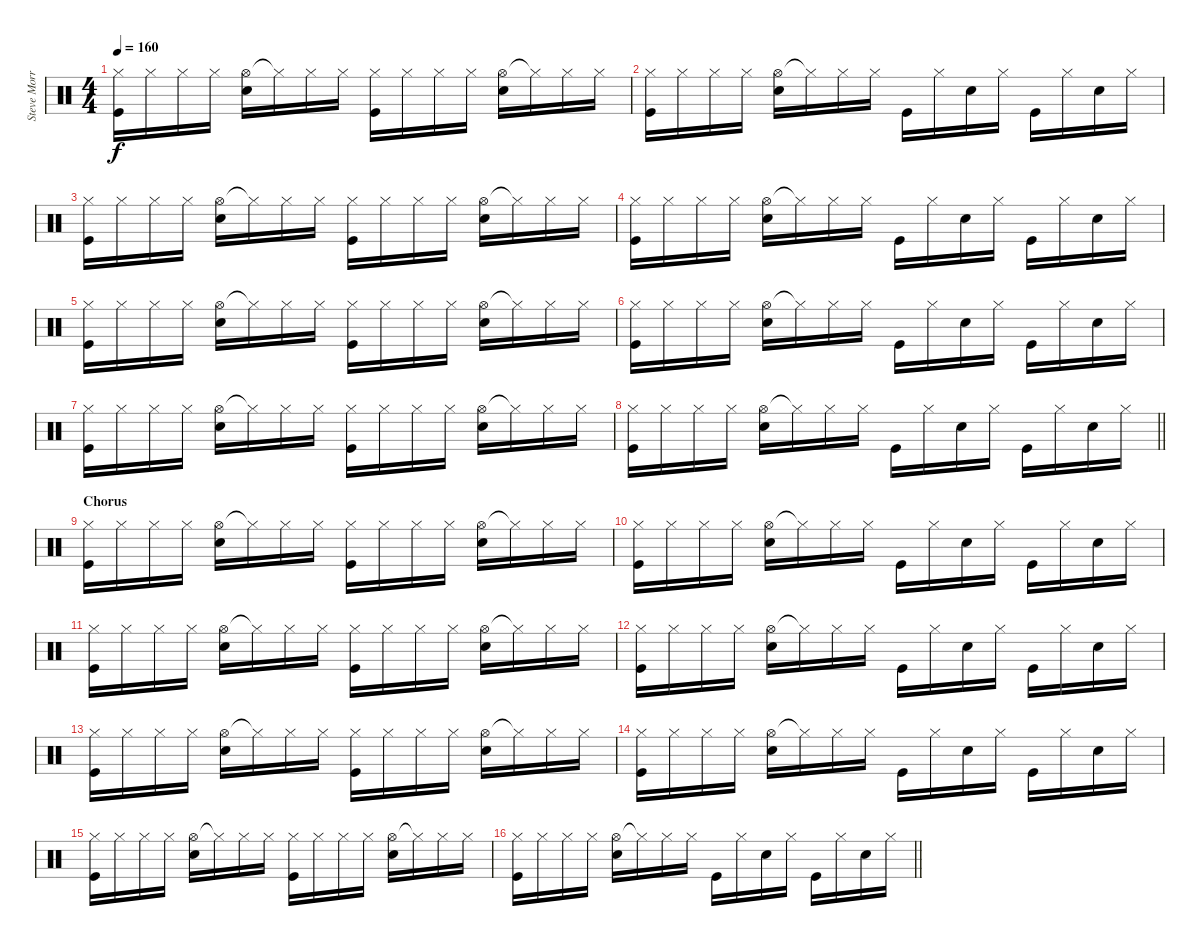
\track ("Steve Morris" "Steve Morr") {instrument percussion}
\staff {score}
\articulation defaults
\ts (4 4)
\tempo 160
\clef neutral
\ks c
("Hi-Hat (closed)" "Kick (hit)").16{dy f} "Hi-Hat (closed)".16 "Hi-Hat (closed)".16 "Hi-Hat (closed)".16 ("Hi-Hat (open)" "Electric Snare (hit)").16 "Hi-Hat (closed)"{t}.16 "Hi-Hat (closed)".16 "Hi-Hat (closed)".16 ("Hi-Hat (closed)" "Kick (hit)").16 "Hi-Hat (closed)".16 "Hi-Hat (closed)".16 "Hi-Hat (closed)".16 ("Hi-Hat (open)" "Electric Snare (hit)").16 "Hi-Hat (closed)"{t}.16 "Hi-Hat (closed)".16 "Hi-Hat (closed)".16 |
("Hi-Hat (closed)" "Kick (hit)").16 "Hi-Hat (closed)".16 "Hi-Hat (closed)".16 "Hi-Hat (closed)".16 ("Hi-Hat (open)" "Electric Snare (hit)").16 "Hi-Hat (closed)"{t}.16 "Hi-Hat (closed)".16 "Hi-Hat (closed)".16 "Kick (hit)".16 "Hi-Hat (closed)".16 "Electric Snare (hit)".16 "Hi-Hat (closed)".16 "Kick (hit)".16 "Hi-Hat (closed)".16 "Electric Snare (hit)".16 "Hi-Hat (closed)".16 |
("Hi-Hat (closed)" "Kick (hit)").16 "Hi-Hat (closed)".16 "Hi-Hat (closed)".16 "Hi-Hat (closed)".16 ("Hi-Hat (open)" "Electric Snare (hit)").16 "Hi-Hat (closed)"{t}.16 "Hi-Hat (closed)".16 "Hi-Hat (closed)".16 ("Hi-Hat (closed)" "Kick (hit)").16 "Hi-Hat (closed)".16 "Hi-Hat (closed)".16 "Hi-Hat (closed)".16 ("Hi-Hat (open)" "Electric Snare (hit)").16 "Hi-Hat (closed)"{t}.16 "Hi-Hat (closed)".16 "Hi-Hat (closed)".16 |
("Hi-Hat (closed)" "Kick (hit)").16 "Hi-Hat (closed)".16 "Hi-Hat (closed)".16 "Hi-Hat (closed)".16 ("Hi-Hat (open)" "Electric Snare (hit)").16 "Hi-Hat (closed)"{t}.16 "Hi-Hat (closed)".16 "Hi-Hat (closed)".16 "Kick (hit)".16 "Hi-Hat (closed)".16 "Electric Snare (hit)".16 "Hi-Hat (closed)".16 "Kick (hit)".16 "Hi-Hat (closed)".16 "Electric Snare (hit)".16 "Hi-Hat (closed)".16 |
("Hi-Hat (closed)" "Kick (hit)").16 "Hi-Hat (closed)".16 "Hi-Hat (closed)".16 "Hi-Hat (closed)".16 ("Hi-Hat (open)" "Electric Snare (hit)").16 "Hi-Hat (closed)"{t}.16 "Hi-Hat (closed)".16 "Hi-Hat (closed)".16 ("Hi-Hat (closed)" "Kick (hit)").16 "Hi-Hat (closed)".16 "Hi-Hat (closed)".16 "Hi-Hat (closed)".16 ("Hi-Hat (open)" "Electric Snare (hit)").16 "Hi-Hat (closed)"{t}.16 "Hi-Hat (closed)".16 "Hi-Hat (closed)".16 |
("Hi-Hat (closed)" "Kick (hit)").16 "Hi-Hat (closed)".16 "Hi-Hat (closed)".16 "Hi-Hat (closed)".16 ("Hi-Hat (open)" "Electric Snare (hit)").16 "Hi-Hat (closed)"{t}.16 "Hi-Hat (closed)".16 "Hi-Hat (closed)".16 "Kick (hit)".16 "Hi-Hat (closed)".16 "Electric Snare (hit)".16 "Hi-Hat (closed)".16 "Kick (hit)".16 "Hi-Hat (closed)".16 "Electric Snare (hit)".16 "Hi-Hat (closed)".16 |
("Hi-Hat (closed)" "Kick (hit)").16 "Hi-Hat (closed)".16 "Hi-Hat (closed)".16 "Hi-Hat (closed)".16 ("Hi-Hat (open)" "Electric Snare (hit)").16 "Hi-Hat (closed)"{t}.16 "Hi-Hat (closed)".16 "Hi-Hat (closed)".16 ("Hi-Hat (closed)" "Kick (hit)").16 "Hi-Hat (closed)".16 "Hi-Hat (closed)".16 "Hi-Hat (closed)".16 ("Hi-Hat (open)" "Electric Snare (hit)").16 "Hi-Hat (closed)"{t}.16 "Hi-Hat (closed)".16 "Hi-Hat (closed)".16 |
\barLineRight lightlight
("Hi-Hat (closed)" "Kick (hit)").16 "Hi-Hat (closed)".16 "Hi-Hat (closed)".16 "Hi-Hat (closed)".16 ("Hi-Hat (open)" "Electric Snare (hit)").16 "Hi-Hat (closed)"{t}.16 "Hi-Hat (closed)".16 "Hi-Hat (closed)".16 "Kick (hit)".16 "Hi-Hat (closed)".16 "Electric Snare (hit)".16 "Hi-Hat (closed)".16 "Kick (hit)".16 "Hi-Hat (closed)".16 "Electric Snare (hit)".16 "Hi-Hat (closed)".16 |
\section ("" "Chorus")
("Hi-Hat (closed)" "Kick (hit)").16 "Hi-Hat (closed)".16 "Hi-Hat (closed)".16 "Hi-Hat (closed)".16 ("Hi-Hat (open)" "Electric Snare (hit)").16 "Hi-Hat (closed)"{t}.16 "Hi-Hat (closed)".16 "Hi-Hat (closed)".16 ("Hi-Hat (closed)" "Kick (hit)").16 "Hi-Hat (closed)".16 "Hi-Hat (closed)".16 "Hi-Hat (closed)".16 ("Hi-Hat (open)" "Electric Snare (hit)").16 "Hi-Hat (closed)"{t}.16 "Hi-Hat (closed)".16 "Hi-Hat (closed)".16 |
("Hi-Hat (closed)" "Kick (hit)").16 "Hi-Hat (closed)".16 "Hi-Hat (closed)".16 "Hi-Hat (closed)".16 ("Hi-Hat (open)" "Electric Snare (hit)").16 "Hi-Hat (closed)"{t}.16 "Hi-Hat (closed)".16 "Hi-Hat (closed)".16 "Kick (hit)".16 "Hi-Hat (closed)".16 "Electric Snare (hit)".16 "Hi-Hat (closed)".16 "Kick (hit)".16 "Hi-Hat (closed)".16 "Electric Snare (hit)".16 "Hi-Hat (closed)".16 |
("Hi-Hat (closed)" "Kick (hit)").16 "Hi-Hat (closed)".16 "Hi-Hat (closed)".16 "Hi-Hat (closed)".16 ("Hi-Hat (open)" "Electric Snare (hit)").16 "Hi-Hat (closed)"{t}.16 "Hi-Hat (closed)".16 "Hi-Hat (closed)".16 ("Hi-Hat (closed)" "Kick (hit)").16 "Hi-Hat (closed)".16 "Hi-Hat (closed)".16 "Hi-Hat (closed)".16 ("Hi-Hat (open)" "Electric Snare (hit)").16 "Hi-Hat (closed)"{t}.16 "Hi-Hat (closed)".16 "Hi-Hat (closed)".16 |
("Hi-Hat (closed)" "Kick (hit)").16 "Hi-Hat (closed)".16 "Hi-Hat (closed)".16 "Hi-Hat (closed)".16 ("Hi-Hat (open)" "Electric Snare (hit)").16 "Hi-Hat (closed)"{t}.16 "Hi-Hat (closed)".16 "Hi-Hat (closed)".16 "Kick (hit)".16 "Hi-Hat (closed)".16 "Electric Snare (hit)".16 "Hi-Hat (closed)".16 "Kick (hit)".16 "Hi-Hat (closed)".16 "Electric Snare (hit)".16 "Hi-Hat (closed)".16 |
("Hi-Hat (closed)" "Kick (hit)").16 "Hi-Hat (closed)".16 "Hi-Hat (closed)".16 "Hi-Hat (closed)".16 ("Hi-Hat (open)" "Electric Snare (hit)").16 "Hi-Hat (closed)"{t}.16 "Hi-Hat (closed)".16 "Hi-Hat (closed)".16 ("Hi-Hat (closed)" "Kick (hit)").16 "Hi-Hat (closed)".16 "Hi-Hat (closed)".16 "Hi-Hat (closed)".16 ("Hi-Hat (open)" "Electric Snare (hit)").16 "Hi-Hat (closed)"{t}.16 "Hi-Hat (closed)".16 "Hi-Hat (closed)".16 |
("Hi-Hat (closed)" "Kick (hit)").16 "Hi-Hat (closed)".16 "Hi-Hat (closed)".16 "Hi-Hat (closed)".16 ("Hi-Hat (open)" "Electric Snare (hit)").16 "Hi-Hat (closed)"{t}.16 "Hi-Hat (closed)".16 "Hi-Hat (closed)".16 "Kick (hit)".16 "Hi-Hat (closed)".16 "Electric Snare (hit)".16 "Hi-Hat (closed)".16 "Kick (hit)".16 "Hi-Hat (closed)".16 "Electric Snare (hit)".16 "Hi-Hat (closed)".16 |
("Hi-Hat (closed)" "Kick (hit)").16 "Hi-Hat (closed)".16 "Hi-Hat (closed)".16 "Hi-Hat (closed)".16 ("Hi-Hat (open)" "Electric Snare (hit)").16 "Hi-Hat (closed)"{t}.16 "Hi-Hat (closed)".16 "Hi-Hat (closed)".16 ("Hi-Hat (closed)" "Kick (hit)").16 "Hi-Hat (closed)".16 "Hi-Hat (closed)".16 "Hi-Hat (closed)".16 ("Hi-Hat (open)" "Electric Snare (hit)").16 "Hi-Hat (closed)"{t}.16 "Hi-Hat (closed)".16 "Hi-Hat (closed)".16 |
\barLineRight lightlight
("Hi-Hat (closed)" "Kick (hit)").16 "Hi-Hat (closed)".16 "Hi-Hat (closed)".16 "Hi-Hat (closed)".16 ("Hi-Hat (open)" "Electric Snare (hit)").16 "Hi-Hat (closed)"{t}.16 "Hi-Hat (closed)".16 "Hi-Hat (closed)".16 "Kick (hit)".16 "Hi-Hat (closed)".16 "Electric Snare (hit)".16 "Hi-Hat (closed)".16 "Kick (hit)".16 "Hi-Hat (closed)".16 "Electric Snare (hit)".16 "Hi-Hat (closed)".16
